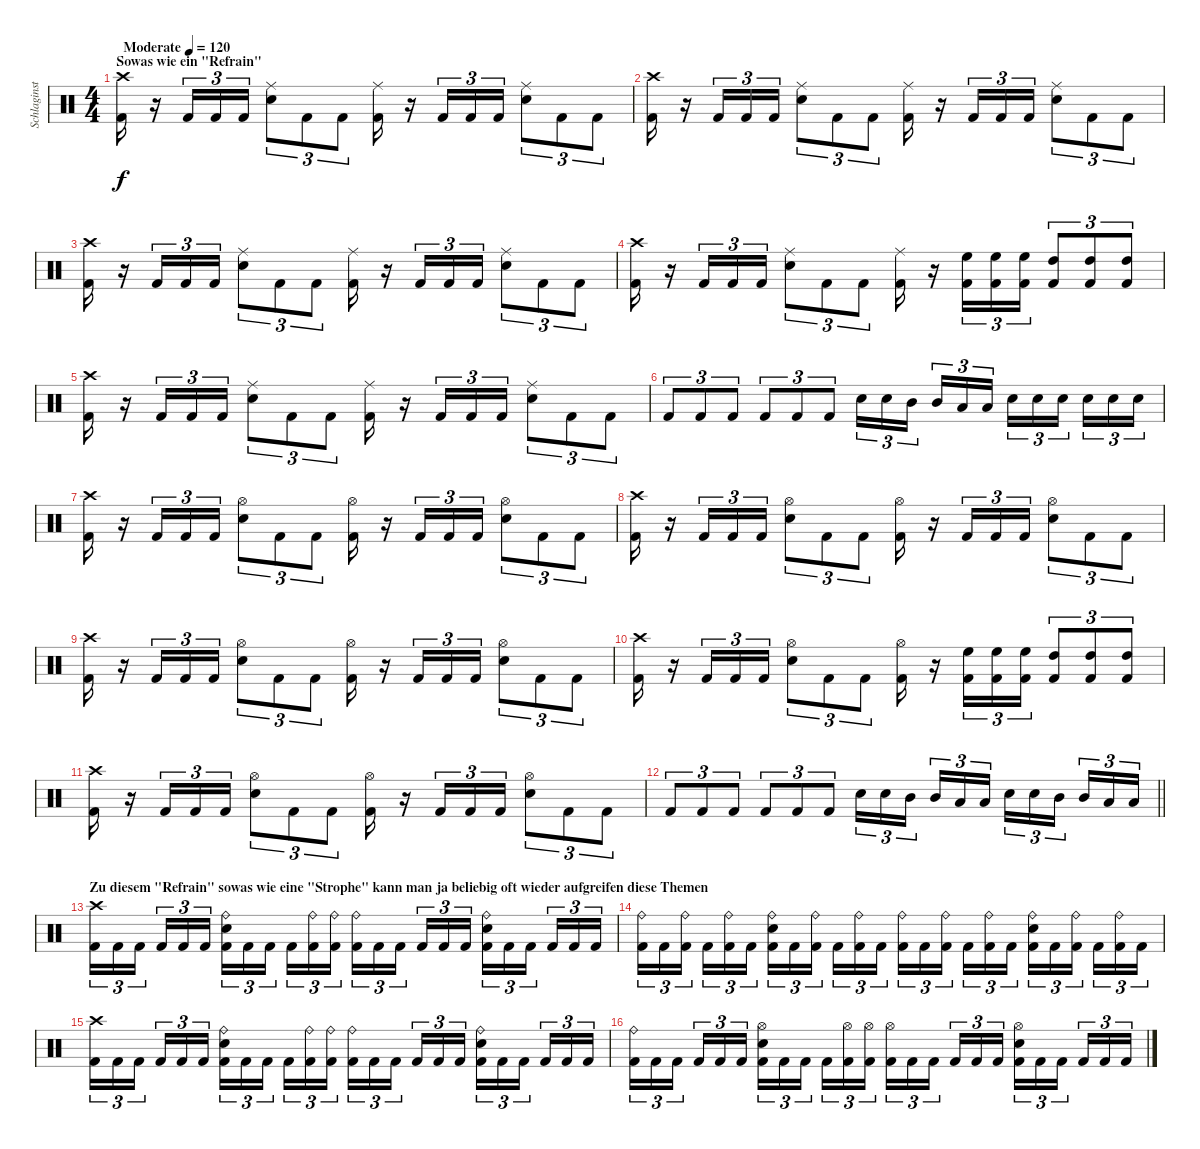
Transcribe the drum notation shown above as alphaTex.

\track ("Schlaginstrumente - Auswahl" "Schlaginst") {instrument percussion}
\staff {score}
\articulation defaults
\ts (4 4)
\section ("" "Sowas wie ein \"Refrain\"")
\tempo (120 "Moderate")
\clef neutral
\ks c
("Kick (hit) 2" "Crash high (hit)").16{dy f} r.16 "Kick (hit) 2".16{tu (3 2)} "Kick (hit) 2".16{tu (3 2)} "Kick (hit) 2".16{tu (3 2)} ("Snare (hit) 2" "Ride (middle)").8{tu (3 2)} "Kick (hit) 2".8{tu (3 2)} "Kick (hit) 2".8{tu (3 2)} ("Kick (hit) 2" "Ride (middle)").16 r.16 "Kick (hit) 2".16{tu (3 2)} "Kick (hit) 2".16{tu (3 2)} "Kick (hit) 2".16{tu (3 2)} ("Snare (hit) 2" "Ride (middle)").8{tu (3 2)} "Kick (hit) 2".8{tu (3 2)} "Kick (hit) 2".8{tu (3 2)} |
("Kick (hit) 2" "Crash high (hit)").16 r.16 "Kick (hit) 2".16{tu (3 2)} "Kick (hit) 2".16{tu (3 2)} "Kick (hit) 2".16{tu (3 2)} ("Snare (hit) 2" "Ride (middle)").8{tu (3 2)} "Kick (hit) 2".8{tu (3 2)} "Kick (hit) 2".8{tu (3 2)} ("Kick (hit) 2" "Ride (middle)").16 r.16 "Kick (hit) 2".16{tu (3 2)} "Kick (hit) 2".16{tu (3 2)} "Kick (hit) 2".16{tu (3 2)} ("Snare (hit) 2" "Ride (middle)").8{tu (3 2)} "Kick (hit) 2".8{tu (3 2)} "Kick (hit) 2".8{tu (3 2)} |
("Kick (hit) 2" "Crash high (hit)").16 r.16 "Kick (hit) 2".16{tu (3 2)} "Kick (hit) 2".16{tu (3 2)} "Kick (hit) 2".16{tu (3 2)} ("Snare (hit) 2" "Ride (middle)").8{tu (3 2)} "Kick (hit) 2".8{tu (3 2)} "Kick (hit) 2".8{tu (3 2)} ("Kick (hit) 2" "Ride (middle)").16 r.16 "Kick (hit) 2".16{tu (3 2)} "Kick (hit) 2".16{tu (3 2)} "Kick (hit) 2".16{tu (3 2)} ("Snare (hit) 2" "Ride (middle)").8{tu (3 2)} "Kick (hit) 2".8{tu (3 2)} "Kick (hit) 2".8{tu (3 2)} |
("Kick (hit) 2" "Crash high (hit)").16 r.16 "Kick (hit) 2".16{tu (3 2)} "Kick (hit) 2".16{tu (3 2)} "Kick (hit) 2".16{tu (3 2)} ("Snare (hit) 2" "Ride (middle)").8{tu (3 2)} "Kick (hit) 2".8{tu (3 2)} "Kick (hit) 2".8{tu (3 2)} ("Kick (hit) 2" "Ride (middle)").16 r.16 ("Kick (hit) 2" "High Floor Tom (hit)").16{tu (3 2)} ("Kick (hit) 2" "High Floor Tom (hit)").16{tu (3 2)} ("Kick (hit) 2" "High Floor Tom (hit)").16{tu (3 2)} ("Kick (hit) 2" "High Tom (hit)").8{tu (3 2)} ("Kick (hit) 2" "High Tom (hit)").8{tu (3 2)} ("Kick (hit) 2" "High Tom (hit)").8{tu (3 2)} |
("Kick (hit) 2" "Crash high (hit)").16 r.16 "Kick (hit) 2".16{tu (3 2)} "Kick (hit) 2".16{tu (3 2)} "Kick (hit) 2".16{tu (3 2)} ("Snare (hit) 2" "Ride (middle)").8{tu (3 2)} "Kick (hit) 2".8{tu (3 2)} "Kick (hit) 2".8{tu (3 2)} ("Kick (hit) 2" "Ride (middle)").16 r.16 "Kick (hit) 2".16{tu (3 2)} "Kick (hit) 2".16{tu (3 2)} "Kick (hit) 2".16{tu (3 2)} ("Snare (hit) 2" "Ride (middle)").8{tu (3 2)} "Kick (hit) 2".8{tu (3 2)} "Kick (hit) 2".8{tu (3 2)} |
"Kick (hit) 2".8{tu (3 2)} "Kick (hit) 2".8{tu (3 2)} "Kick (hit) 2".8{tu (3 2)} "Kick (hit) 2".8{tu (3 2)} "Kick (hit) 2".8{tu (3 2)} "Kick (hit) 2".8{tu (3 2)} "Snare (hit) 2".16{tu (3 2)} "Snare (hit) 2".16{tu (3 2)} "Mid Tom (hit)".16{tu (3 2) beam splitsecondary} "Mid Tom (hit)".16{tu (3 2)} "Low Tom (hit)".16{tu (3 2)} "Low Tom (hit)".16{tu (3 2)} "Snare (hit) 2".16{tu (3 2)} "Snare (hit) 2".16{tu (3 2)} "Snare (hit) 2".16{tu (3 2) beam splitsecondary} "Snare (hit) 2".16{tu (3 2)} "Snare (hit) 2".16{tu (3 2)} "Snare (hit) 2".16{tu (3 2)} |
("Kick (hit) 2" "Crash high (hit)").16 r.16 "Kick (hit) 2".16{tu (3 2)} "Kick (hit) 2".16{tu (3 2)} "Kick (hit) 2".16{tu (3 2)} ("Snare (hit) 2" "Hi-Hat (open)").8{tu (3 2)} "Kick (hit) 2".8{tu (3 2)} "Kick (hit) 2".8{tu (3 2)} ("Kick (hit) 2" "Hi-Hat (open)").16 r.16 "Kick (hit) 2".16{tu (3 2)} "Kick (hit) 2".16{tu (3 2)} "Kick (hit) 2".16{tu (3 2)} ("Snare (hit) 2" "Hi-Hat (open)").8{tu (3 2)} "Kick (hit) 2".8{tu (3 2)} "Kick (hit) 2".8{tu (3 2)} |
("Kick (hit) 2" "Crash high (hit)").16 r.16 "Kick (hit) 2".16{tu (3 2)} "Kick (hit) 2".16{tu (3 2)} "Kick (hit) 2".16{tu (3 2)} ("Snare (hit) 2" "Hi-Hat (open)").8{tu (3 2)} "Kick (hit) 2".8{tu (3 2)} "Kick (hit) 2".8{tu (3 2)} ("Kick (hit) 2" "Hi-Hat (open)").16 r.16 "Kick (hit) 2".16{tu (3 2)} "Kick (hit) 2".16{tu (3 2)} "Kick (hit) 2".16{tu (3 2)} ("Snare (hit) 2" "Hi-Hat (open)").8{tu (3 2)} "Kick (hit) 2".8{tu (3 2)} "Kick (hit) 2".8{tu (3 2)} |
("Kick (hit) 2" "Crash high (hit)").16 r.16 "Kick (hit) 2".16{tu (3 2)} "Kick (hit) 2".16{tu (3 2)} "Kick (hit) 2".16{tu (3 2)} ("Snare (hit) 2" "Hi-Hat (open)").8{tu (3 2)} "Kick (hit) 2".8{tu (3 2)} "Kick (hit) 2".8{tu (3 2)} ("Kick (hit) 2" "Hi-Hat (open)").16 r.16 "Kick (hit) 2".16{tu (3 2)} "Kick (hit) 2".16{tu (3 2)} "Kick (hit) 2".16{tu (3 2)} ("Snare (hit) 2" "Hi-Hat (open)").8{tu (3 2)} "Kick (hit) 2".8{tu (3 2)} "Kick (hit) 2".8{tu (3 2)} |
("Kick (hit) 2" "Crash high (hit)").16 r.16 "Kick (hit) 2".16{tu (3 2)} "Kick (hit) 2".16{tu (3 2)} "Kick (hit) 2".16{tu (3 2)} ("Snare (hit) 2" "Hi-Hat (open)").8{tu (3 2)} "Kick (hit) 2".8{tu (3 2)} "Kick (hit) 2".8{tu (3 2)} ("Kick (hit) 2" "Hi-Hat (open)").16 r.16 ("Kick (hit) 2" "High Floor Tom (hit)").16{tu (3 2)} ("Kick (hit) 2" "High Floor Tom (hit)").16{tu (3 2)} ("Kick (hit) 2" "High Floor Tom (hit)").16{tu (3 2)} ("Kick (hit) 2" "High Tom (hit)").8{tu (3 2)} ("Kick (hit) 2" "High Tom (hit)").8{tu (3 2)} ("Kick (hit) 2" "High Tom (hit)").8{tu (3 2)} |
("Kick (hit) 2" "Crash high (hit)").16 r.16 "Kick (hit) 2".16{tu (3 2)} "Kick (hit) 2".16{tu (3 2)} "Kick (hit) 2".16{tu (3 2)} ("Snare (hit) 2" "Hi-Hat (open)").8{tu (3 2)} "Kick (hit) 2".8{tu (3 2)} "Kick (hit) 2".8{tu (3 2)} ("Kick (hit) 2" "Hi-Hat (open)").16 r.16 "Kick (hit) 2".16{tu (3 2)} "Kick (hit) 2".16{tu (3 2)} "Kick (hit) 2".16{tu (3 2)} ("Snare (hit) 2" "Hi-Hat (open)").8{tu (3 2)} "Kick (hit) 2".8{tu (3 2)} "Kick (hit) 2".8{tu (3 2)} |
\barLineRight lightlight "Kick (hit) 2".8{tu (3 2)} "Kick (hit) 2".8{tu (3 2)} "Kick (hit) 2".8{tu (3 2)} "Kick (hit) 2".8{tu (3 2)} "Kick (hit) 2".8{tu (3 2)} "Kick (hit) 2".8{tu (3 2)} "Snare (hit) 2".16{tu (3 2)} "Snare (hit) 2".16{tu (3 2)} "Mid Tom (hit)".16{tu (3 2) beam splitsecondary} "Mid Tom (hit)".16{tu (3 2)} "Low Tom (hit)".16{tu (3 2)} "Low Tom (hit)".16{tu (3 2)} "Snare (hit) 2".16{tu (3 2)} "Snare (hit) 2".16{tu (3 2)} "Mid Tom (hit)".16{tu (3 2) beam splitsecondary} "Mid Tom (hit)".16{tu (3 2)} "Low Tom (hit)".16{tu (3 2)} "Low Tom (hit)".16{tu (3 2)}
|
\section ("" "Zu diesem \"Refrain\" sowas wie eine \"Strophe\" kann man ja beliebig oft wieder aufgreifen diese Themen")
("Kick (hit) 2" "Crash high (hit)").16{tu (3 2)} "Kick (hit) 2".16{tu (3 2)} "Kick (hit) 2".16{tu (3 2) beam splitsecondary} "Kick (hit) 2".16{tu (3 2)} "Kick (hit) 2".16{tu (3 2)} "Kick (hit) 2".16{tu (3 2)} ("Kick (hit) 2" "Snare (hit) 2" "Ride (bell)").16{tu (3 2)} "Kick (hit) 2".16{tu (3 2)} "Kick (hit) 2".16{tu (3 2) beam splitsecondary} "Kick (hit) 2".16{tu (3 2)} ("Kick (hit) 2" "Ride (bell)").16{tu (3 2)} ("Kick (hit) 2" "Ride (bell)").16{tu (3 2)} ("Kick (hit) 2" "Ride (bell)").16{tu (3 2)} "Kick (hit) 2".16{tu (3 2)} "Kick (hit) 2".16{tu (3 2) beam splitsecondary} "Kick (hit) 2".16{tu (3 2)} "Kick (hit) 2".16{tu (3 2)} "Kick (hit) 2".16{tu (3 2)} ("Kick (hit) 2" "Snare (hit) 2" "Ride (bell)").16{tu (3 2)} "Kick (hit) 2".16{tu (3 2)} "Kick (hit) 2".16{tu (3 2) beam splitsecondary} "Kick (hit) 2".16{tu (3 2)} "Kick (hit) 2".16{tu (3 2)} "Kick (hit) 2".16{tu (3 2)} |
("Kick (hit) 2" "Ride (bell)").16{tu (3 2)} "Kick (hit) 2".16{tu (3 2)} ("Kick (hit) 2" "Ride (bell)").16{tu (3 2) beam splitsecondary} "Kick (hit) 2".16{tu (3 2)} ("Kick (hit) 2" "Ride (bell)").16{tu (3 2)} "Kick (hit) 2".16{tu (3 2)} ("Kick (hit) 2" "Snare (hit) 2" "Ride (bell)").16{tu (3 2)} "Kick (hit) 2".16{tu (3 2)} ("Kick (hit) 2" "Ride (bell)").16{tu (3 2) beam splitsecondary} "Kick (hit) 2".16{tu (3 2)} ("Kick (hit) 2" "Ride (bell)").16{tu (3 2)} "Kick (hit) 2".16{tu (3 2)} ("Kick (hit) 2" "Ride (bell)").16{tu (3 2)} "Kick (hit) 2".16{tu (3 2)} ("Kick (hit) 2" "Ride (bell)").16{tu (3 2) beam splitsecondary} "Kick (hit) 2".16{tu (3 2)} ("Kick (hit) 2" "Ride (bell)").16{tu (3 2)} "Kick (hit) 2".16{tu (3 2)} ("Kick (hit) 2" "Snare (hit) 2" "Ride (bell)").16{tu (3 2)} "Kick (hit) 2".16{tu (3 2)} ("Kick (hit) 2" "Ride (bell)").16{tu (3 2) beam splitsecondary} "Kick (hit) 2".16{tu (3 2)} ("Kick (hit) 2" "Ride (bell)").16{tu (3 2)} "Kick (hit) 2".16{tu (3 2)} |
("Kick (hit) 2" "Crash high (hit)").16{tu (3 2)} "Kick (hit) 2".16{tu (3 2)} "Kick (hit) 2".16{tu (3 2) beam splitsecondary} "Kick (hit) 2".16{tu (3 2)} "Kick (hit) 2".16{tu (3 2)} "Kick (hit) 2".16{tu (3 2)} ("Kick (hit) 2" "Snare (hit) 2" "Ride (bell)").16{tu (3 2)} "Kick (hit) 2".16{tu (3 2)} "Kick (hit) 2".16{tu (3 2) beam splitsecondary} "Kick (hit) 2".16{tu (3 2)} ("Kick (hit) 2" "Ride (bell)").16{tu (3 2)} ("Kick (hit) 2" "Ride (bell)").16{tu (3 2)} ("Kick (hit) 2" "Ride (bell)").16{tu (3 2)} "Kick (hit) 2".16{tu (3 2)} "Kick (hit) 2".16{tu (3 2) beam splitsecondary} "Kick (hit) 2".16{tu (3 2)} "Kick (hit) 2".16{tu (3 2)} "Kick (hit) 2".16{tu (3 2)} ("Kick (hit) 2" "Snare (hit) 2" "Ride (bell)").16{tu (3 2)} "Kick (hit) 2".16{tu (3 2)} "Kick (hit) 2".16{tu (3 2) beam splitsecondary} "Kick (hit) 2".16{tu (3 2)} "Kick (hit) 2".16{tu (3 2)} "Kick (hit) 2".16{tu (3 2)} |
("Kick (hit) 2" "Ride (bell)").16{tu (3 2)} "Kick (hit) 2".16{tu (3 2)} "Kick (hit) 2".16{tu (3 2) beam splitsecondary} "Kick (hit) 2".16{tu (3 2)} "Kick (hit) 2".16{tu (3 2)} "Kick (hit) 2".16{tu (3 2)} ("Kick (hit) 2" "Snare (hit) 2" "Hi-Hat (open)").16{tu (3 2)} "Kick (hit) 2".16{tu (3 2)} "Kick (hit) 2".16{tu (3 2) beam splitsecondary} "Kick (hit) 2".16{tu (3 2)} ("Kick (hit) 2" "Hi-Hat (open)").16{tu (3 2)} ("Kick (hit) 2" "Hi-Hat (open)").16{tu (3 2)} ("Kick (hit) 2" "Hi-Hat (open)").16{tu (3 2)} "Kick (hit) 2".16{tu (3 2)} "Kick (hit) 2".16{tu (3 2) beam splitsecondary} "Kick (hit) 2".16{tu (3 2)} "Kick (hit) 2".16{tu (3 2)} "Kick (hit) 2".16{tu (3 2)} ("Kick (hit) 2" "Snare (hit) 2" "Hi-Hat (open)").16{tu (3 2)} "Kick (hit) 2".16{tu (3 2)} "Kick (hit) 2".16{tu (3 2) beam splitsecondary} "Kick (hit) 2".16{tu (3 2)} "Kick (hit) 2".16{tu (3 2)} "Kick (hit) 2".16{tu (3 2)}
